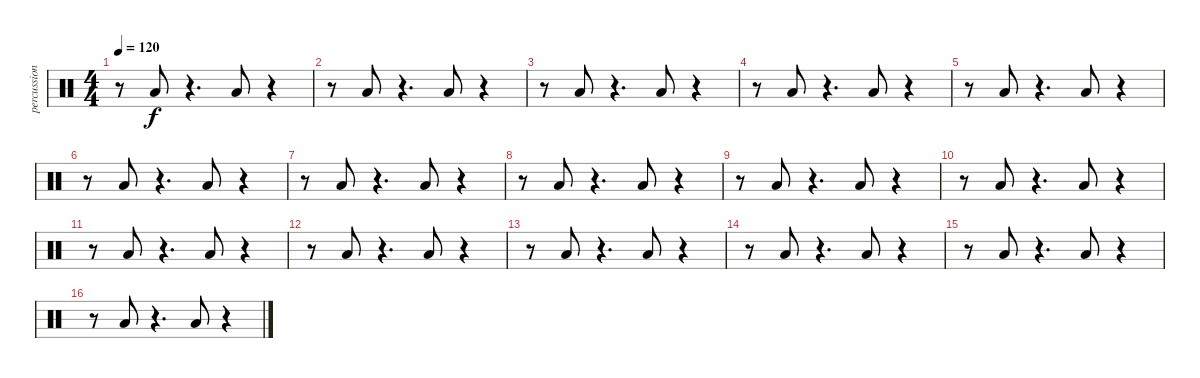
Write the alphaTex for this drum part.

\track ("percussion" "percussion") {instrument percussion}
\staff {score}
\articulation defaults
\ts (4 4)
\tempo 120
\clef neutral
\ks c
r.8{dy f} "Low Floor Tom (hit)".8 r.4{d} "Low Floor Tom (hit)".8 r.4 |
r.8 "Low Floor Tom (hit)".8 r.4{d} "Low Floor Tom (hit)".8 r.4 |
r.8 "Low Floor Tom (hit)".8 r.4{d} "Low Floor Tom (hit)".8 r.4 |
r.8 "Low Floor Tom (hit)".8 r.4{d} "Low Floor Tom (hit)".8 r.4 |
r.8 "Low Floor Tom (hit)".8 r.4{d} "Low Floor Tom (hit)".8 r.4 |
r.8 "Low Floor Tom (hit)".8 r.4{d} "Low Floor Tom (hit)".8 r.4 |
r.8 "Low Floor Tom (hit)".8 r.4{d} "Low Floor Tom (hit)".8 r.4 |
r.8 "Low Floor Tom (hit)".8 r.4{d} "Low Floor Tom (hit)".8 r.4 |
r.8 "Low Floor Tom (hit)".8 r.4{d} "Low Floor Tom (hit)".8 r.4 |
r.8 "Low Floor Tom (hit)".8 r.4{d} "Low Floor Tom (hit)".8 r.4 |
r.8 "Low Floor Tom (hit)".8 r.4{d} "Low Floor Tom (hit)".8 r.4 |
r.8 "Low Floor Tom (hit)".8 r.4{d} "Low Floor Tom (hit)".8 r.4 |
r.8 "Low Floor Tom (hit)".8 r.4{d} "Low Floor Tom (hit)".8 r.4 |
r.8 "Low Floor Tom (hit)".8 r.4{d} "Low Floor Tom (hit)".8 r.4 |
r.8 "Low Floor Tom (hit)".8 r.4{d} "Low Floor Tom (hit)".8 r.4 |
r.8 "Low Floor Tom (hit)".8 r.4{d} "Low Floor Tom (hit)".8 r.4
